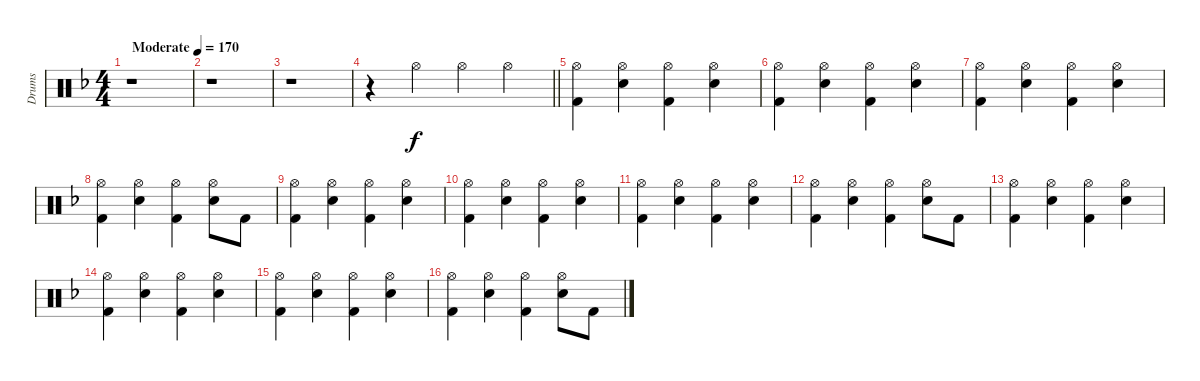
\track ("Drums" "Drums") {instrument percussion}
\staff {score}
\articulation defaults
\ts (4 4)
\tempo (170 "Moderate")
\clef neutral
\ks f
r.1{dy f} |
r.1 |
r.1 |
\barLineRight lightlight
r.4 "Hi-Hat (open)".4 "Hi-Hat (open)".4 "Hi-Hat (open)".4 |
("Hi-Hat (open)" "Kick (hit) 2").4 ("Hi-Hat (open)" "Electric Snare (hit)").4 ("Hi-Hat (open)" "Kick (hit) 2").4 ("Hi-Hat (open)" "Electric Snare (hit)").4 |
("Hi-Hat (open)" "Kick (hit) 2").4 ("Hi-Hat (open)" "Electric Snare (hit)").4 ("Hi-Hat (open)" "Kick (hit) 2").4 ("Hi-Hat (open)" "Electric Snare (hit)").4 |
("Hi-Hat (open)" "Kick (hit) 2").4 ("Hi-Hat (open)" "Electric Snare (hit)").4 ("Hi-Hat (open)" "Kick (hit) 2").4 ("Hi-Hat (open)" "Electric Snare (hit)").4 |
("Hi-Hat (open)" "Kick (hit) 2").4 ("Hi-Hat (open)" "Electric Snare (hit)").4 ("Hi-Hat (open)" "Kick (hit) 2").4 ("Hi-Hat (open)" "Electric Snare (hit)").8 "Kick (hit) 2".8 |
("Hi-Hat (open)" "Kick (hit) 2").4 ("Hi-Hat (open)" "Electric Snare (hit)").4 ("Hi-Hat (open)" "Kick (hit) 2").4 ("Hi-Hat (open)" "Electric Snare (hit)").4 |
("Hi-Hat (open)" "Kick (hit) 2").4 ("Hi-Hat (open)" "Electric Snare (hit)").4 ("Hi-Hat (open)" "Kick (hit) 2").4 ("Hi-Hat (open)" "Electric Snare (hit)").4 |
("Hi-Hat (open)" "Kick (hit) 2").4 ("Hi-Hat (open)" "Electric Snare (hit)").4 ("Hi-Hat (open)" "Kick (hit) 2").4 ("Hi-Hat (open)" "Electric Snare (hit)").4 |
("Hi-Hat (open)" "Kick (hit) 2").4 ("Hi-Hat (open)" "Electric Snare (hit)").4 ("Hi-Hat (open)" "Kick (hit) 2").4 ("Hi-Hat (open)" "Electric Snare (hit)").8 "Kick (hit) 2".8 |
("Hi-Hat (open)" "Kick (hit) 2").4 ("Hi-Hat (open)" "Electric Snare (hit)").4 ("Hi-Hat (open)" "Kick (hit) 2").4 ("Hi-Hat (open)" "Electric Snare (hit)").4 |
("Hi-Hat (open)" "Kick (hit) 2").4 ("Hi-Hat (open)" "Electric Snare (hit)").4 ("Hi-Hat (open)" "Kick (hit) 2").4 ("Hi-Hat (open)" "Electric Snare (hit)").4 |
("Hi-Hat (open)" "Kick (hit) 2").4 ("Hi-Hat (open)" "Electric Snare (hit)").4 ("Hi-Hat (open)" "Kick (hit) 2").4 ("Hi-Hat (open)" "Electric Snare (hit)").4 |
("Hi-Hat (open)" "Kick (hit) 2").4 ("Hi-Hat (open)" "Electric Snare (hit)").4 ("Hi-Hat (open)" "Kick (hit) 2").4 ("Hi-Hat (open)" "Electric Snare (hit)").8 "Kick (hit) 2".8
